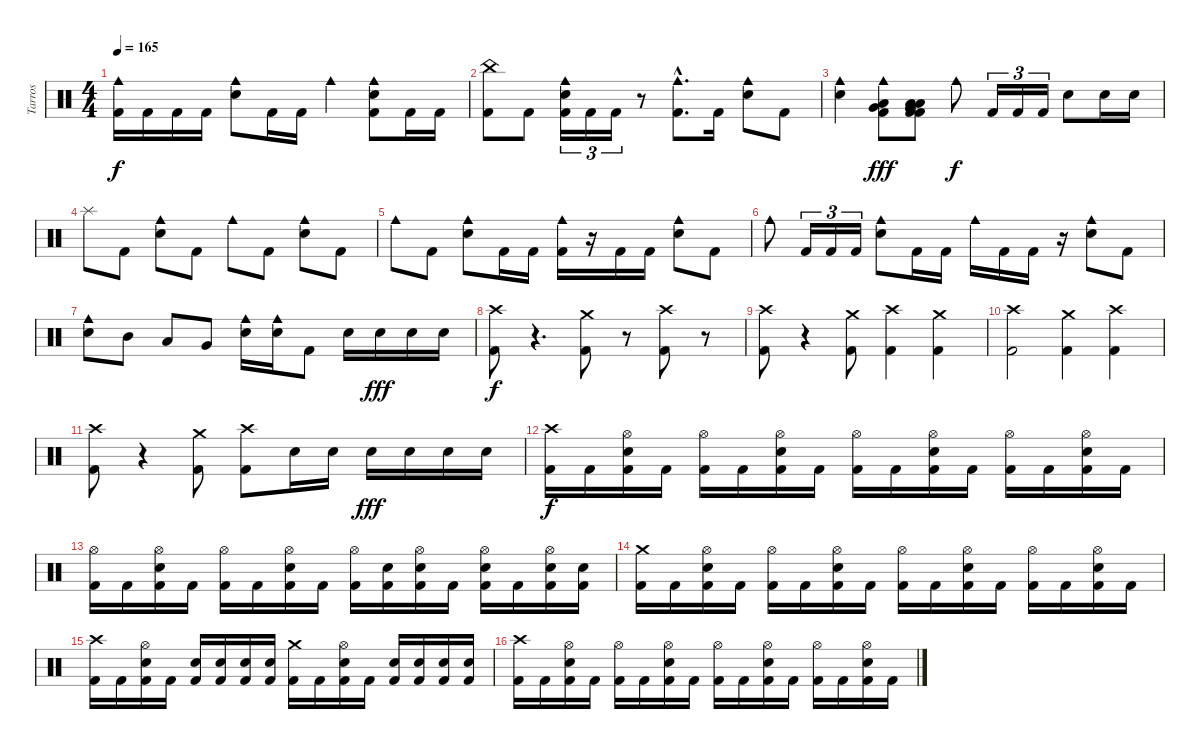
\track ("Tarros" "Tarros") {instrument percussion}
\staff {score}
\articulation defaults
\ts (4 4)
\tempo 165
\clef neutral
\ks c
("Cowbell medium (hit)" "Kick (hit) 2").16{dy f} "Kick (hit) 2".16 "Kick (hit) 2".16 "Kick (hit) 2".16 ("Cowbell medium (hit)" "Electric Snare (hit)").8 "Kick (hit) 2".16 "Kick (hit) 2".16 "Cowbell medium (hit)".4 ("Cowbell medium (hit)" "Electric Snare (hit)" "Kick (hit) 2").8 "Kick (hit) 2".16 "Kick (hit) 2".16 |
("China (hit)" "Kick (hit) 2").8 "Kick (hit) 2".8 ("Cowbell medium (hit)" "Electric Snare (hit)" "Kick (hit) 2").16{tu (3 2)} "Kick (hit) 2".16{tu (3 2)} "Kick (hit) 2".16{tu (3 2)} r.8 ("Cowbell medium (hit)"{hac} "Kick (hit) 2"{hac}).8{d} "Kick (hit) 2".16 ("Cowbell medium (hit)" "Electric Snare (hit)").8 "Kick (hit) 2".8 |
("Cowbell medium (hit)" "Electric Snare (hit)").4 ("Cowbell medium (hit)" "Very Low Tom (hit)" "Low Floor Tom (hit)" "Kick (hit) 2").8{dy fff} ("Kick (hit) 2" "Very Low Tom (hit)" "Low Floor Tom (hit)" "Very Low Tom (hit)" "Low Floor Tom (hit)" "Kick (hit) 2").8 "Cowbell medium (hit)".8{dy f} "Kick (hit) 2".16{tu (3 2)} "Kick (hit) 2".16{tu (3 2)} "Kick (hit) 2".16{tu (3 2)} "Electric Snare (hit)".8 "Electric Snare (hit)".16 "Electric Snare (hit)".16 |
"Splash (hit)".8 "Kick (hit) 2".8 ("Cowbell medium (hit)" "Electric Snare (hit)").8 "Kick (hit) 2".8 "Cowbell medium (hit)".8 "Kick (hit) 2".8 ("Cowbell medium (hit)" "Electric Snare (hit)").8 "Kick (hit) 2".8 |
"Cowbell medium (hit)".8 "Kick (hit) 2".8 ("Cowbell medium (hit)" "Electric Snare (hit)").8 "Kick (hit) 2".16 "Kick (hit) 2".16 ("Cowbell medium (hit)" "Kick (hit) 2").16 r.16 "Kick (hit) 2".16 "Kick (hit) 2".16 ("Cowbell medium (hit)" "Electric Snare (hit)").8 "Kick (hit) 2".8 |
"Cowbell medium (hit)".8 "Kick (hit) 2".16{tu (3 2)} "Kick (hit) 2".16{tu (3 2)} "Kick (hit) 2".16{tu (3 2)} ("Cowbell medium (hit)" "Electric Snare (hit)").8 "Kick (hit) 2".16 "Kick (hit) 2".16 "Cowbell medium (hit)".16 "Kick (hit) 2".16 "Kick (hit) 2".16 r.16 ("Cowbell medium (hit)" "Electric Snare (hit)").8 "Kick (hit) 2".8 |
("Cowbell medium (hit)" "Electric Snare (hit)").8 "Mid Tom (hit)".8 "Low Tom (hit)".8 "Very Low Tom (hit)".8 ("Cowbell medium (hit)" "Electric Snare (hit)").16 ("Cowbell medium (hit)" "Electric Snare (hit)").16 "Kick (hit) 2".8 "Electric Snare (hit)".16 "Electric Snare (hit)".16{dy fff} "Electric Snare (hit)".16 "Electric Snare (hit)".16 |
("Crash high (hit)" "Kick (hit) 2").8{dy f} r.4{d volume 0} ("Crash medium (hit)" "Kick (hit) 2").8{volume 14} r.8{volume 0} ("Crash high (hit)" "Kick (hit) 2").8{volume 14} r.8{volume 0} |
("Crash high (hit)" "Kick (hit) 2").8{volume 14} r.4{volume 0} ("Crash medium (hit)" "Kick (hit) 2").8{volume 14} ("Crash high (hit)" "Kick (hit) 2").4 ("Crash medium (hit)" "Kick (hit) 2").4 |
("Crash high (hit)" "Kick (hit) 2").2 ("Crash medium (hit)" "Kick (hit) 2").4 ("Crash high (hit)" "Kick (hit) 2").4 |
("Crash high (hit)" "Kick (hit) 2").8 r.4 ("Crash medium (hit)" "Kick (hit) 2").8 ("Crash high (hit)" "Kick (hit) 2").8 "Electric Snare (hit)".16 "Electric Snare (hit)".16 "Electric Snare (hit)".16{dy fff} "Electric Snare (hit)".16 "Electric Snare (hit)".16 "Electric Snare (hit)".16 |
("Crash high (hit)" "Kick (hit) 2").16{dy f} "Kick (hit) 2".16 ("Hi-Hat (open)" "Electric Snare (hit)" "Kick (hit) 2").16 "Kick (hit) 2".16 ("Hi-Hat (open)" "Kick (hit) 2").16 "Kick (hit) 2".16 ("Hi-Hat (open)" "Electric Snare (hit)" "Kick (hit) 2").16 "Kick (hit) 2".16 ("Hi-Hat (open)" "Kick (hit) 2").16 "Kick (hit) 2".16 ("Hi-Hat (open)" "Electric Snare (hit)" "Kick (hit) 2").16 "Kick (hit) 2".16 ("Hi-Hat (open)" "Kick (hit) 2").16 "Kick (hit) 2".16 ("Hi-Hat (open)" "Electric Snare (hit)" "Kick (hit) 2").16 "Kick (hit) 2".16 |
("Hi-Hat (open)" "Kick (hit) 2").16 "Kick (hit) 2".16 ("Hi-Hat (open)" "Electric Snare (hit)" "Kick (hit) 2").16 "Kick (hit) 2".16 ("Hi-Hat (open)" "Kick (hit) 2").16 "Kick (hit) 2".16 ("Hi-Hat (open)" "Electric Snare (hit)" "Kick (hit) 2").16 "Kick (hit) 2".16 ("Hi-Hat (open)" "Kick (hit) 2").16 ("Electric Snare (hit)" "Kick (hit) 2").16 ("Hi-Hat (open)" "Electric Snare (hit)" "Kick (hit) 2").16 "Kick (hit) 2".16 ("Hi-Hat (open)" "Electric Snare (hit)" "Kick (hit) 2").16 "Kick (hit) 2".16 ("Hi-Hat (open)" "Electric Snare (hit)" "Kick (hit) 2").16 ("Electric Snare (hit)" "Kick (hit) 2").16 |
("Crash medium (hit)" "Kick (hit) 2").16 "Kick (hit) 2".16 ("Hi-Hat (open)" "Electric Snare (hit)" "Kick (hit) 2").16 "Kick (hit) 2".16 ("Hi-Hat (open)" "Kick (hit) 2").16 "Kick (hit) 2".16 ("Hi-Hat (open)" "Electric Snare (hit)" "Kick (hit) 2").16 "Kick (hit) 2".16 ("Hi-Hat (open)" "Kick (hit) 2").16 "Kick (hit) 2".16 ("Hi-Hat (open)" "Electric Snare (hit)" "Kick (hit) 2").16 "Kick (hit) 2".16 ("Hi-Hat (open)" "Kick (hit) 2").16 "Kick (hit) 2".16 ("Hi-Hat (open)" "Electric Snare (hit)" "Kick (hit) 2").16 "Kick (hit) 2".16 |
("Crash high (hit)" "Kick (hit) 2").16 "Kick (hit) 2".16 ("Hi-Hat (open)" "Electric Snare (hit)" "Kick (hit) 2").16 "Kick (hit) 2".16 ("Electric Snare (hit)" "Kick (hit) 2").16 ("Electric Snare (hit)" "Kick (hit) 2").16 ("Electric Snare (hit)" "Kick (hit) 2").16 ("Electric Snare (hit)" "Kick (hit) 2").16 ("Crash medium (hit)" "Kick (hit) 2").16 "Kick (hit) 2".16 ("Hi-Hat (open)" "Electric Snare (hit)" "Kick (hit) 2").16 "Kick (hit) 2".16 ("Electric Snare (hit)" "Kick (hit) 2").16 ("Electric Snare (hit)" "Kick (hit) 2").16 ("Electric Snare (hit)" "Kick (hit) 2").16 ("Electric Snare (hit)" "Kick (hit) 2").16 |
("Crash high (hit)" "Kick (hit) 2").16 "Kick (hit) 2".16 ("Hi-Hat (open)" "Electric Snare (hit)" "Kick (hit) 2").16 "Kick (hit) 2".16 ("Hi-Hat (open)" "Kick (hit) 2").16 "Kick (hit) 2".16 ("Hi-Hat (open)" "Electric Snare (hit)" "Kick (hit) 2").16 "Kick (hit) 2".16 ("Hi-Hat (open)" "Kick (hit) 2").16 "Kick (hit) 2".16 ("Hi-Hat (open)" "Electric Snare (hit)" "Kick (hit) 2").16 "Kick (hit) 2".16 ("Hi-Hat (open)" "Kick (hit) 2").16 "Kick (hit) 2".16 ("Hi-Hat (open)" "Electric Snare (hit)" "Kick (hit) 2").16 "Kick (hit) 2".16
